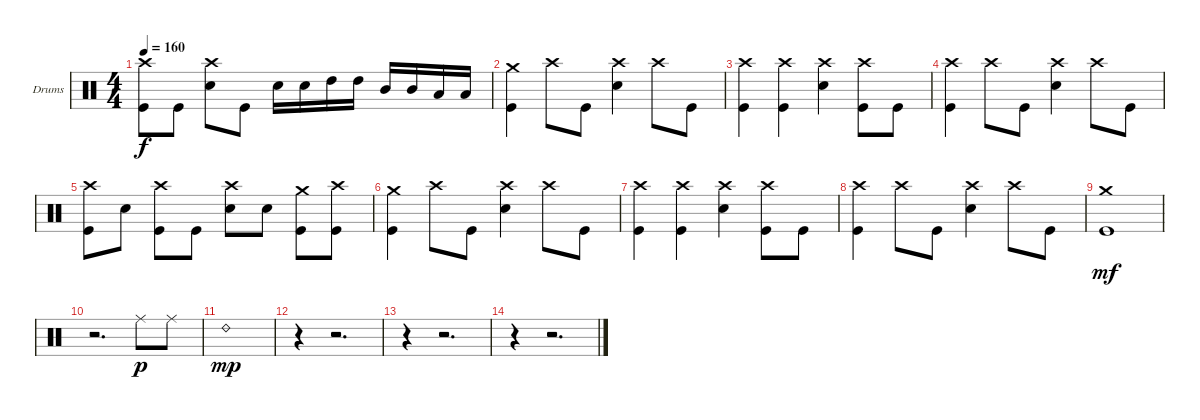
\bracketExtendMode groupsimilarinstruments
\firstSystemTrackNameOrientation horizontal
\otherSystemsTrackNameOrientation horizontal
\track ("Drumkit" "Drums") {instrument percussion}
\staff {score}
\articulation defaults
\ts (4 4)
\tempo 160
\clef neutral
\ks c
("Crash high (hit)" "Kick (hit)").8{dy f} "Kick (hit)".8 ("Crash high (hit)" "Snare (hit) 2").8 "Kick (hit)".8 "Snare (hit) 2".16 "Snare (hit) 2".16 "High Tom (hit)".16 "High Tom (hit)".16 "Mid Tom (hit)".16 "Mid Tom (hit)".16 "Low Tom (hit)".16 "Low Tom (hit)".16 |
("Kick (hit)" "Crash medium (hit)").4 "Crash high (hit)".8 "Kick (hit)".8 ("Crash high (hit)" "Snare (hit) 2").4 "Crash high (hit)".8 "Kick (hit)".8 |
("Crash high (hit)" "Kick (hit)").4 ("Crash high (hit)" "Kick (hit)").4 ("Crash high (hit)" "Snare (hit) 2").4 ("Crash high (hit)" "Kick (hit)").8 "Kick (hit)".8 |
("Kick (hit)" "Crash high (hit)").4 "Crash high (hit)".8 "Kick (hit)".8 ("Crash high (hit)" "Snare (hit) 2").4 "Crash high (hit)".8 "Kick (hit)".8 |
("Crash high (hit)" "Kick (hit)").8 "Snare (hit) 2".8 ("Crash high (hit)" "Kick (hit)").8 "Kick (hit)".8 ("Crash high (hit)" "Snare (hit) 2").8 "Snare (hit) 2".8 ("Crash medium (hit)" "Kick (hit)").8 ("Crash high (hit)" "Kick (hit)").8 |
("Kick (hit)" "Crash medium (hit)").4 "Crash high (hit)".8 "Kick (hit)".8 ("Crash high (hit)" "Snare (hit) 2").4 "Crash high (hit)".8 "Kick (hit)".8 |
("Crash high (hit)" "Kick (hit)").4 ("Crash high (hit)" "Kick (hit)").4 ("Crash high (hit)" "Snare (hit) 2").4 ("Crash high (hit)" "Kick (hit)").8 "Kick (hit)".8 |
("Kick (hit)" "Crash high (hit)").4 "Crash high (hit)".8 "Kick (hit)".8 ("Crash high (hit)" "Snare (hit) 2").4 "Crash high (hit)".8 "Kick (hit)".8 |
("Crash medium (hit)" "Kick (hit)").1{dy mf} |
r.2{d} "Ride (middle)".8{dy p} "Ride (middle)".8 |
"Ride (bell) 2".1{dy mp} |
r.4 r.2{d} |
r.4 r.2{d} |
r.4 r.2{d}
